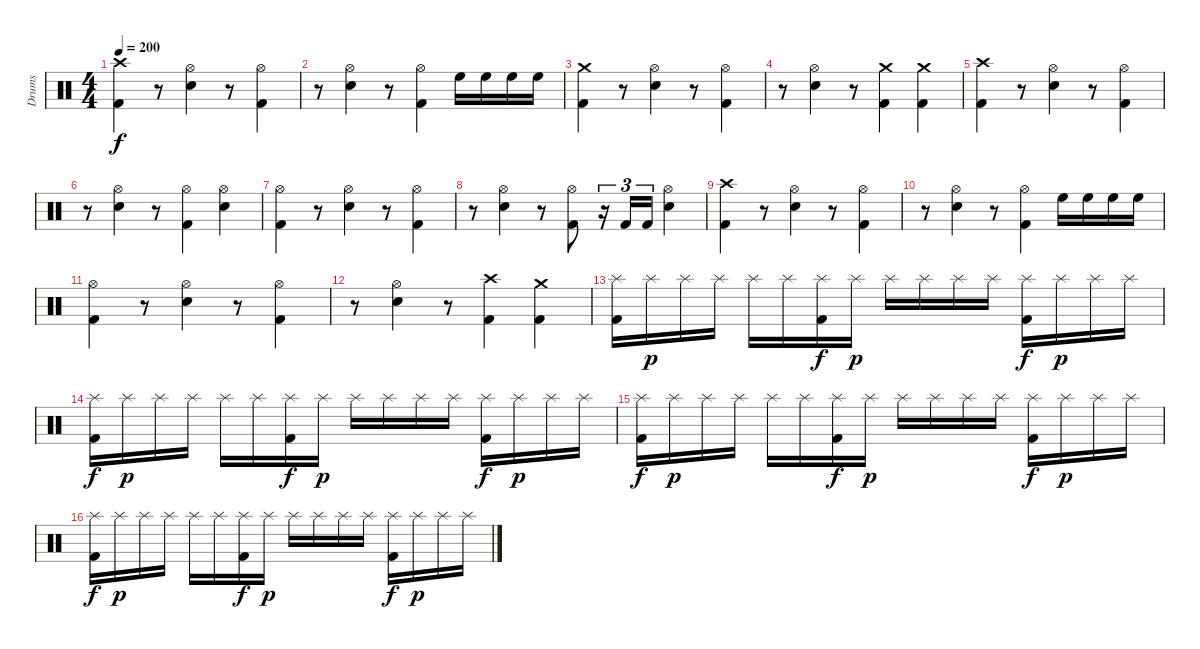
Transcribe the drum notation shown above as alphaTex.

\track ("Drums" "Drums") {instrument percussion}
\staff {score}
\articulation defaults
\ts (4 4)
\tempo 200
\clef neutral
\ks c
("Crash high (hit)" "Kick (hit) 2").4{dy f} r.8 ("Hi-Hat (open)" "Snare (hit) 2").4 r.8 ("Hi-Hat (open)" "Kick (hit) 2").4 |
r.8 ("Hi-Hat (open)" "Snare (hit) 2").4 r.8 ("Hi-Hat (open)" "Kick (hit) 2").4 "High Floor Tom (hit)".16 "High Floor Tom (hit)".16 "High Floor Tom (hit)".16 "High Floor Tom (hit)".16 |
("Crash medium (hit)" "Kick (hit) 2").4 r.8 ("Hi-Hat (open)" "Snare (hit) 2").4 r.8 ("Hi-Hat (open)" "Kick (hit) 2").4 |
r.8 ("Hi-Hat (open)" "Snare (hit) 2").4 r.8 ("Crash medium (hit)" "Kick (hit) 2").4 ("Crash medium (hit)" "Kick (hit) 2").4 |
("Crash high (hit)" "Kick (hit) 2").4 r.8 ("Hi-Hat (open)" "Snare (hit) 2").4 r.8 ("Hi-Hat (open)" "Kick (hit) 2").4 |
r.8 ("Hi-Hat (open)" "Snare (hit) 2").4 r.8 ("Hi-Hat (open)" "Kick (hit) 2").4 ("Hi-Hat (open)" "Snare (hit) 2").4 |
("Hi-Hat (open)" "Kick (hit) 2").4 r.8 ("Hi-Hat (open)" "Snare (hit) 2").4 r.8 ("Hi-Hat (open)" "Kick (hit) 2").4 |
r.8 ("Hi-Hat (open)" "Snare (hit) 2").4 r.8 ("Hi-Hat (open)" "Kick (hit) 2").8 r.16{tu (3 2)} "Kick (hit) 2".16{tu (3 2)} "Kick (hit) 2".16{tu (3 2)} ("Hi-Hat (open)" "Snare (hit) 2").4 |
("Crash high (hit)" "Kick (hit) 2").4 r.8 ("Hi-Hat (open)" "Snare (hit) 2").4 r.8 ("Hi-Hat (open)" "Kick (hit) 2").4 |
r.8 ("Hi-Hat (open)" "Snare (hit) 2").4 r.8 ("Hi-Hat (open)" "Kick (hit) 2").4 "High Floor Tom (hit)".16 "High Floor Tom (hit)".16 "High Floor Tom (hit)".16 "High Floor Tom (hit)".16 |
("Hi-Hat (open)" "Kick (hit) 2").4 r.8 ("Hi-Hat (open)" "Snare (hit) 2").4 r.8 ("Hi-Hat (open)" "Kick (hit) 2").4 |
r.8 ("Hi-Hat (open)" "Snare (hit) 2").4 r.8 ("Crash high (hit)" "Kick (hit) 2").4 ("Crash medium (hit)" "Kick (hit) 2").4 |
("Splash (hit)" "Kick (hit) 2").16 "Splash (hit)".16{dy p} "Splash (hit)".16 "Splash (hit)".16 "Splash (hit)".16 "Splash (hit)".16 ("Splash (hit)" "Kick (hit) 2").16{dy f} "Splash (hit)".16{dy p} "Splash (hit)".16 "Splash (hit)".16 "Splash (hit)".16 "Splash (hit)".16 ("Splash (hit)" "Kick (hit) 2").16{dy f} "Splash (hit)".16{dy p} "Splash (hit)".16 "Splash (hit)".16 |
("Splash (hit)" "Kick (hit) 2").16{dy f} "Splash (hit)".16{dy p} "Splash (hit)".16 "Splash (hit)".16 "Splash (hit)".16 "Splash (hit)".16 ("Splash (hit)" "Kick (hit) 2").16{dy f} "Splash (hit)".16{dy p} "Splash (hit)".16 "Splash (hit)".16 "Splash (hit)".16 "Splash (hit)".16 ("Splash (hit)" "Kick (hit) 2").16{dy f} "Splash (hit)".16{dy p} "Splash (hit)".16 "Splash (hit)".16 |
("Splash (hit)" "Kick (hit) 2").16{dy f} "Splash (hit)".16{dy p} "Splash (hit)".16 "Splash (hit)".16 "Splash (hit)".16 "Splash (hit)".16 ("Splash (hit)" "Kick (hit) 2").16{dy f} "Splash (hit)".16{dy p} "Splash (hit)".16 "Splash (hit)".16 "Splash (hit)".16 "Splash (hit)".16 ("Splash (hit)" "Kick (hit) 2").16{dy f} "Splash (hit)".16{dy p} "Splash (hit)".16 "Splash (hit)".16 |
("Splash (hit)" "Kick (hit) 2").16{dy f} "Splash (hit)".16{dy p} "Splash (hit)".16 "Splash (hit)".16 "Splash (hit)".16 "Splash (hit)".16 ("Splash (hit)" "Kick (hit) 2").16{dy f} "Splash (hit)".16{dy p} "Splash (hit)".16 "Splash (hit)".16 "Splash (hit)".16 "Splash (hit)".16 ("Splash (hit)" "Kick (hit) 2").16{dy f} "Splash (hit)".16{dy p} "Splash (hit)".16 "Splash (hit)".16
